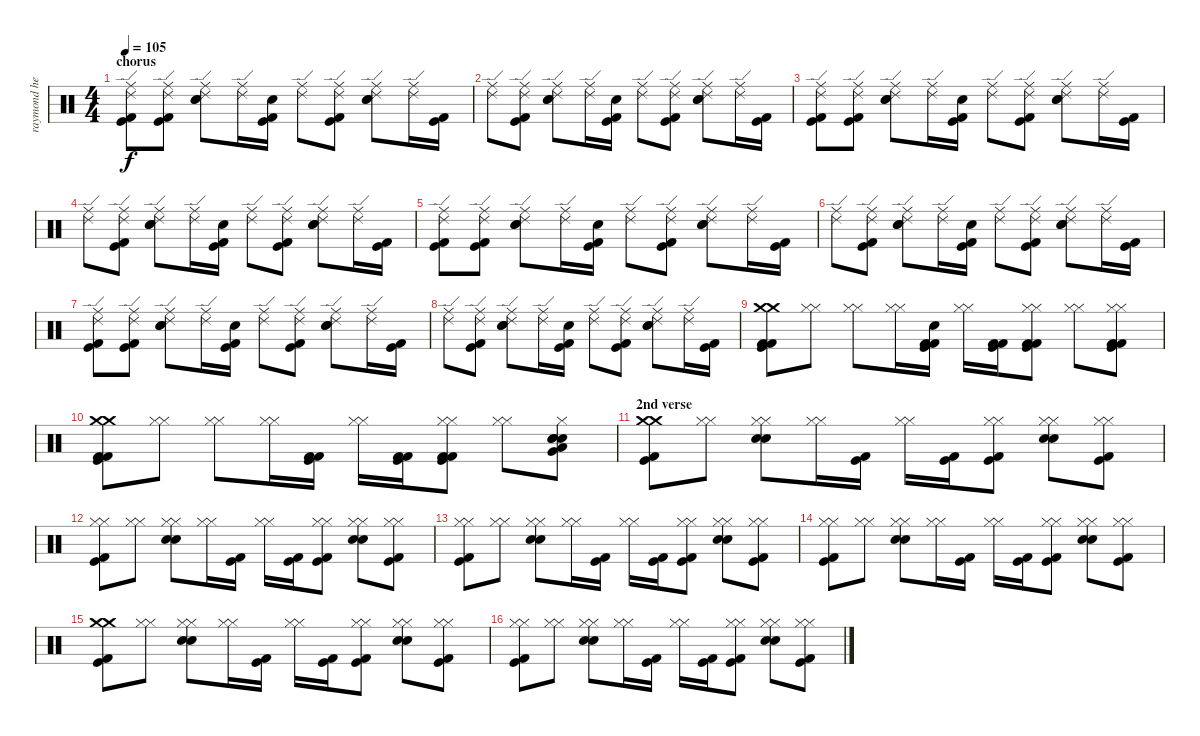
\track ("raymond herrea" "raymond he") {instrument percussion}
\staff {score}
\articulation defaults
\ts (4 4)
\section ("" "chorus")
\tempo 105
\clef neutral
\ks c
("Ride (middle)" "Ride (edge) 2" "Kick (hit)" "Kick (hit) 2").8{dy f} ("Ride (middle)" "Ride (edge) 2" "Kick (hit)" "Kick (hit) 2").8 ("Ride (middle)" "Ride (edge) 2" "Snare (hit) 2" "Electric Snare (hit)").8 ("Ride (middle)" "Ride (edge) 2").16 ("Snare (hit)" "Kick (hit)" "Kick (hit) 2").16 ("Ride (middle)" "Ride (edge) 2").8 ("Ride (middle)" "Ride (edge) 2" "Kick (hit)" "Kick (hit) 2").8 ("Ride (middle)" "Ride (edge) 2" "Snare (hit) 2" "Electric Snare (hit)").8 ("Ride (middle)" "Ride (edge) 2").16 ("Kick (hit)" "Kick (hit) 2").16 |
("Ride (middle)" "Ride (edge) 2").8 ("Ride (middle)" "Ride (edge) 2" "Kick (hit)" "Kick (hit) 2").8 ("Ride (middle)" "Ride (edge) 2" "Snare (hit) 2" "Electric Snare (hit)").8 ("Ride (middle)" "Ride (edge) 2").16 ("Snare (hit)" "Kick (hit)" "Kick (hit) 2").16 ("Ride (middle)" "Ride (edge) 2").8 ("Ride (middle)" "Ride (edge) 2" "Kick (hit)" "Kick (hit) 2").8 ("Ride (middle)" "Ride (edge) 2" "Snare (hit) 2" "Electric Snare (hit)").8 ("Ride (middle)" "Ride (edge) 2").16 ("Kick (hit)" "Kick (hit) 2").16 |
("Ride (middle)" "Ride (edge) 2" "Kick (hit)" "Kick (hit) 2").8 ("Ride (middle)" "Ride (edge) 2" "Kick (hit)" "Kick (hit) 2").8 ("Ride (middle)" "Ride (edge) 2" "Snare (hit) 2" "Electric Snare (hit)").8 ("Ride (middle)" "Ride (edge) 2").16 ("Snare (hit)" "Kick (hit)" "Kick (hit) 2").16 ("Ride (middle)" "Ride (edge) 2").8 ("Ride (middle)" "Ride (edge) 2" "Kick (hit)" "Kick (hit) 2").8 ("Ride (middle)" "Ride (edge) 2" "Snare (hit) 2" "Electric Snare (hit)").8 ("Ride (middle)" "Ride (edge) 2").16 ("Kick (hit)" "Kick (hit) 2").16 |
("Ride (middle)" "Ride (edge) 2").8 ("Ride (middle)" "Ride (edge) 2" "Kick (hit)" "Kick (hit) 2").8 ("Ride (middle)" "Ride (edge) 2" "Snare (hit) 2" "Electric Snare (hit)").8 ("Ride (middle)" "Ride (edge) 2").16 ("Snare (hit)" "Kick (hit)" "Kick (hit) 2").16 ("Ride (middle)" "Ride (edge) 2").8 ("Ride (middle)" "Ride (edge) 2" "Kick (hit)" "Kick (hit) 2").8 ("Ride (middle)" "Ride (edge) 2" "Snare (hit) 2" "Electric Snare (hit)").8 ("Ride (middle)" "Ride (edge) 2").16 ("Kick (hit)" "Kick (hit) 2").16 |
("Ride (middle)" "Ride (edge) 2" "Kick (hit)" "Kick (hit) 2").8 ("Ride (middle)" "Ride (edge) 2" "Kick (hit)" "Kick (hit) 2").8 ("Ride (middle)" "Ride (edge) 2" "Snare (hit) 2" "Electric Snare (hit)").8 ("Ride (middle)" "Ride (edge) 2").16 ("Snare (hit)" "Kick (hit)" "Kick (hit) 2").16 ("Ride (middle)" "Ride (edge) 2").8 ("Ride (middle)" "Ride (edge) 2" "Kick (hit)" "Kick (hit) 2").8 ("Ride (middle)" "Ride (edge) 2" "Snare (hit) 2" "Electric Snare (hit)").8 ("Ride (middle)" "Ride (edge) 2").16 ("Kick (hit)" "Kick (hit) 2").16 |
("Ride (middle)" "Ride (edge) 2").8 ("Ride (middle)" "Ride (edge) 2" "Kick (hit)" "Kick (hit) 2").8 ("Ride (middle)" "Ride (edge) 2" "Snare (hit) 2" "Electric Snare (hit)").8 ("Ride (middle)" "Ride (edge) 2").16 ("Snare (hit)" "Kick (hit)" "Kick (hit) 2").16 ("Ride (middle)" "Ride (edge) 2").8 ("Ride (middle)" "Ride (edge) 2" "Kick (hit)" "Kick (hit) 2").8 ("Ride (middle)" "Ride (edge) 2" "Snare (hit) 2" "Electric Snare (hit)").8 ("Ride (middle)" "Ride (edge) 2").16 ("Kick (hit)" "Kick (hit) 2").16 |
("Ride (middle)" "Ride (edge) 2" "Kick (hit)" "Kick (hit) 2").8 ("Ride (middle)" "Ride (edge) 2" "Kick (hit)" "Kick (hit) 2").8 ("Ride (middle)" "Ride (edge) 2" "Snare (hit) 2" "Electric Snare (hit)").8 ("Ride (middle)" "Ride (edge) 2").16 ("Snare (hit)" "Kick (hit)" "Kick (hit) 2").16 ("Ride (middle)" "Ride (edge) 2").8 ("Ride (middle)" "Ride (edge) 2" "Kick (hit)" "Kick (hit) 2").8 ("Ride (middle)" "Ride (edge) 2" "Snare (hit) 2" "Electric Snare (hit)").8 ("Ride (middle)" "Ride (edge) 2").16 ("Kick (hit)" "Kick (hit) 2").16 |
("Ride (middle)" "Ride (edge) 2").8 ("Ride (middle)" "Ride (edge) 2" "Kick (hit)" "Kick (hit) 2").8 ("Ride (middle)" "Ride (edge) 2" "Snare (hit) 2" "Electric Snare (hit)").8 ("Ride (middle)" "Ride (edge) 2").16 ("Snare (hit)" "Kick (hit)" "Kick (hit) 2").16 ("Ride (middle)" "Ride (edge) 2").8 ("Ride (middle)" "Ride (edge) 2" "Kick (hit)" "Kick (hit) 2").8 ("Ride (middle)" "Ride (edge) 2" "Snare (hit) 2" "Electric Snare (hit)").8 ("Ride (middle)" "Ride (edge) 2").16 ("Kick (hit)" "Kick (hit) 2").16 |
("Crash medium (hit)" "Crash medium (hit)" "Kick (hit)" "Kick (hit) 2" "Kick (hit) 2").8 ("Hi-Hat (closed)" "Hi-Hat (closed)").8 ("Hi-Hat (closed)" "Hi-Hat (closed)").8 ("Hi-Hat (closed)" "Hi-Hat (closed)").16 ("Snare (hit)" "Kick (hit)" "Kick (hit) 2" "Kick (hit) 2").16 ("Hi-Hat (closed)" "Hi-Hat (closed)").16 ("Kick (hit)" "Kick (hit) 2" "Kick (hit) 2").16 ("Hi-Hat (closed)" "Hi-Hat (closed)" "Kick (hit)" "Kick (hit) 2" "Kick (hit) 2").8 ("Hi-Hat (closed)" "Hi-Hat (closed)").8 ("Hi-Hat (closed)" "Hi-Hat (closed)" "Kick (hit)" "Kick (hit) 2" "Kick (hit) 2").8 |
("Crash medium (hit)" "Crash medium (hit)" "Kick (hit)" "Kick (hit) 2" "Kick (hit) 2").8 ("Hi-Hat (closed)" "Hi-Hat (closed)").8 ("Hi-Hat (closed)" "Hi-Hat (closed)").8 ("Hi-Hat (closed)" "Hi-Hat (closed)").16 ("Kick (hit)" "Kick (hit) 2" "Kick (hit) 2").16 ("Hi-Hat (closed)" "Hi-Hat (closed)").16 ("Kick (hit)" "Kick (hit) 2" "Kick (hit) 2").16 ("Hi-Hat (closed)" "Hi-Hat (closed)" "Kick (hit)" "Kick (hit) 2" "Kick (hit) 2").8 ("Hi-Hat (closed)" "Hi-Hat (closed)").8 ("Hi-Hat (closed)" "Electric Snare (hit)" "Snare (hit) 2" "Very Low Tom (hit)" "Low Floor Tom (hit)" "Electric Snare (hit)").8 |
\section ("" "2nd verse")
("Crash medium (hit)" "Crash medium (hit)" "Kick (hit)" "Kick (hit) 2").8 ("Hi-Hat (closed)" "Hi-Hat (closed)").8 ("Hi-Hat (closed)" "Hi-Hat (closed)" "Snare (hit) 2" "Electric Snare (hit)").8 ("Hi-Hat (closed)" "Hi-Hat (closed)").16 ("Kick (hit)" "Kick (hit) 2").16 ("Hi-Hat (closed)" "Hi-Hat (closed)").16 ("Kick (hit)" "Kick (hit) 2").16 ("Hi-Hat (closed)" "Hi-Hat (closed)" "Kick (hit)" "Kick (hit) 2").8 ("Hi-Hat (closed)" "Hi-Hat (closed)" "Snare (hit) 2" "Electric Snare (hit)").8 ("Hi-Hat (closed)" "Hi-Hat (closed)" "Kick (hit)" "Kick (hit) 2").8 |
("Hi-Hat (closed)" "Hi-Hat (closed)" "Kick (hit)" "Kick (hit) 2").8 ("Hi-Hat (closed)" "Hi-Hat (closed)").8 ("Hi-Hat (closed)" "Hi-Hat (closed)" "Snare (hit) 2" "Electric Snare (hit)").8 ("Hi-Hat (closed)" "Hi-Hat (closed)").16 ("Kick (hit)" "Kick (hit) 2").16 ("Hi-Hat (closed)" "Hi-Hat (closed)").16 ("Kick (hit)" "Kick (hit) 2").16 ("Hi-Hat (closed)" "Hi-Hat (closed)" "Kick (hit)" "Kick (hit) 2").8 ("Hi-Hat (closed)" "Hi-Hat (closed)" "Snare (hit) 2" "Electric Snare (hit)").8 ("Hi-Hat (closed)" "Hi-Hat (closed)" "Kick (hit)" "Kick (hit) 2").8 |
("Hi-Hat (closed)" "Hi-Hat (closed)" "Kick (hit)" "Kick (hit) 2").8 ("Hi-Hat (closed)" "Hi-Hat (closed)").8 ("Hi-Hat (closed)" "Hi-Hat (closed)" "Snare (hit) 2" "Electric Snare (hit)").8 ("Hi-Hat (closed)" "Hi-Hat (closed)").16 ("Kick (hit)" "Kick (hit) 2").16 ("Hi-Hat (closed)" "Hi-Hat (closed)").16 ("Kick (hit)" "Kick (hit) 2").16 ("Hi-Hat (closed)" "Hi-Hat (closed)" "Kick (hit)" "Kick (hit) 2").8 ("Hi-Hat (closed)" "Hi-Hat (closed)" "Snare (hit) 2" "Electric Snare (hit)").8 ("Hi-Hat (closed)" "Hi-Hat (closed)" "Kick (hit)" "Kick (hit) 2").8 |
("Hi-Hat (closed)" "Hi-Hat (closed)" "Kick (hit)" "Kick (hit) 2").8 ("Hi-Hat (closed)" "Hi-Hat (closed)").8 ("Hi-Hat (closed)" "Hi-Hat (closed)" "Snare (hit) 2" "Electric Snare (hit)").8 ("Hi-Hat (closed)" "Hi-Hat (closed)").16 ("Kick (hit)" "Kick (hit) 2").16 ("Hi-Hat (closed)" "Hi-Hat (closed)").16 ("Kick (hit)" "Kick (hit) 2").16 ("Hi-Hat (closed)" "Hi-Hat (closed)" "Kick (hit)" "Kick (hit) 2").8 ("Hi-Hat (closed)" "Hi-Hat (closed)" "Snare (hit) 2" "Electric Snare (hit)").8 ("Hi-Hat (closed)" "Hi-Hat (closed)" "Kick (hit)" "Kick (hit) 2").8 |
("Crash medium (hit)" "Crash medium (hit)" "Kick (hit)" "Kick (hit) 2").8 ("Hi-Hat (closed)" "Hi-Hat (closed)").8 ("Hi-Hat (closed)" "Hi-Hat (closed)" "Snare (hit) 2" "Electric Snare (hit)").8 ("Hi-Hat (closed)" "Hi-Hat (closed)").16 ("Kick (hit)" "Kick (hit) 2").16 ("Hi-Hat (closed)" "Hi-Hat (closed)").16 ("Kick (hit)" "Kick (hit) 2").16 ("Hi-Hat (closed)" "Hi-Hat (closed)" "Kick (hit)" "Kick (hit) 2").8 ("Hi-Hat (closed)" "Hi-Hat (closed)" "Snare (hit) 2" "Electric Snare (hit)").8 ("Hi-Hat (closed)" "Hi-Hat (closed)" "Kick (hit)" "Kick (hit) 2").8 |
("Hi-Hat (closed)" "Hi-Hat (closed)" "Kick (hit)" "Kick (hit) 2").8 ("Hi-Hat (closed)" "Hi-Hat (closed)").8 ("Hi-Hat (closed)" "Hi-Hat (closed)" "Snare (hit) 2" "Electric Snare (hit)").8 ("Hi-Hat (closed)" "Hi-Hat (closed)").16 ("Kick (hit)" "Kick (hit) 2").16 ("Hi-Hat (closed)" "Hi-Hat (closed)").16 ("Kick (hit)" "Kick (hit) 2").16 ("Hi-Hat (closed)" "Hi-Hat (closed)" "Kick (hit)" "Kick (hit) 2").8 ("Hi-Hat (closed)" "Hi-Hat (closed)" "Snare (hit) 2" "Electric Snare (hit)").8 ("Hi-Hat (closed)" "Hi-Hat (closed)" "Kick (hit)" "Kick (hit) 2").8
